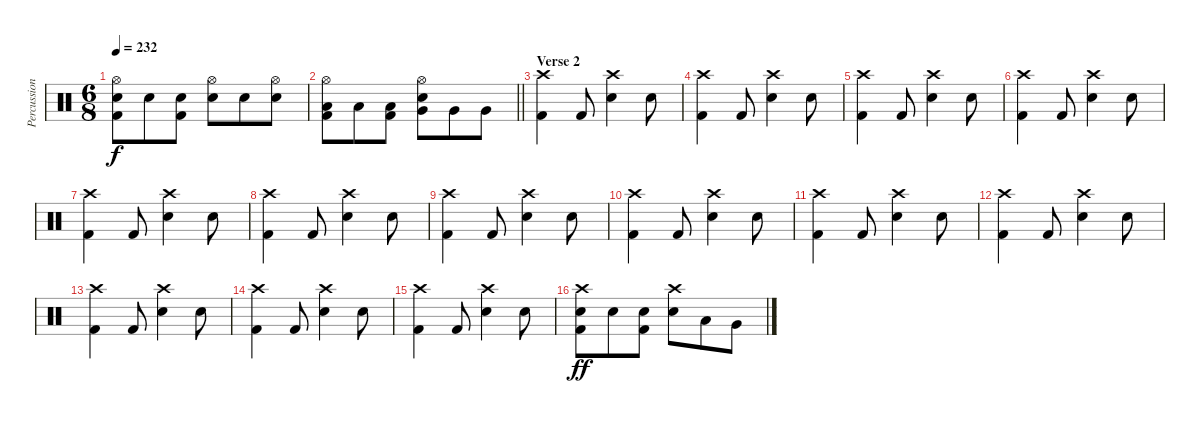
\track ("Percussion" "Percussion") {instrument percussion}
\staff {score}
\articulation defaults
\ts (6 8)
\tempo 232
\clef neutral
\ks c
("Hi-Hat (open)" "Electric Snare (hit)" "Kick (hit) 2").8{dy f} "Electric Snare (hit)".8 ("Electric Snare (hit)" "Kick (hit) 2").8 ("Hi-Hat (open)" "Electric Snare (hit)").8 "Electric Snare (hit)".8 ("Hi-Hat (open)" "Electric Snare (hit)").8 |
\barLineRight lightlight
("Hi-Hat (open)" "Low Tom (hit)" "Kick (hit) 2").8 "Low Tom (hit)".8 ("Low Tom (hit)" "Kick (hit) 2").8 ("Hi-Hat (open)" "Electric Snare (hit)" "Very Low Tom (hit)").8 "Very Low Tom (hit)".8 "Very Low Tom (hit)".8 |
\section ("" "Verse 2")
("Crash high (hit)" "Kick (hit) 2").4 "Kick (hit) 2".8 ("Crash high (hit)" "Electric Snare (hit)").4 "Electric Snare (hit)".8 |
("Crash high (hit)" "Kick (hit) 2").4 "Kick (hit) 2".8 ("Crash high (hit)" "Electric Snare (hit)").4 "Electric Snare (hit)".8 |
("Crash high (hit)" "Kick (hit) 2").4 "Kick (hit) 2".8 ("Crash high (hit)" "Electric Snare (hit)").4 "Electric Snare (hit)".8 |
("Crash high (hit)" "Kick (hit) 2").4 "Kick (hit) 2".8 ("Crash high (hit)" "Electric Snare (hit)").4 "Electric Snare (hit)".8 |
("Crash high (hit)" "Kick (hit) 2").4 "Kick (hit) 2".8 ("Crash high (hit)" "Electric Snare (hit)").4 "Electric Snare (hit)".8 |
("Crash high (hit)" "Kick (hit) 2").4 "Kick (hit) 2".8 ("Crash high (hit)" "Electric Snare (hit)").4 "Electric Snare (hit)".8 |
("Crash high (hit)" "Kick (hit) 2").4 "Kick (hit) 2".8 ("Crash high (hit)" "Electric Snare (hit)").4 "Electric Snare (hit)".8 |
("Crash high (hit)" "Kick (hit) 2").4 "Kick (hit) 2".8 ("Crash high (hit)" "Electric Snare (hit)").4 "Electric Snare (hit)".8 |
("Crash high (hit)" "Kick (hit) 2").4 "Kick (hit) 2".8 ("Crash high (hit)" "Electric Snare (hit)").4 "Electric Snare (hit)".8 |
("Crash high (hit)" "Kick (hit) 2").4 "Kick (hit) 2".8 ("Crash high (hit)" "Electric Snare (hit)").4 "Electric Snare (hit)".8 |
("Crash high (hit)" "Kick (hit) 2").4 "Kick (hit) 2".8 ("Crash high (hit)" "Electric Snare (hit)").4 "Electric Snare (hit)".8 |
("Crash high (hit)" "Kick (hit) 2").4 "Kick (hit) 2".8 ("Crash high (hit)" "Electric Snare (hit)").4 "Electric Snare (hit)".8 |
("Crash high (hit)" "Kick (hit) 2").4 "Kick (hit) 2".8 ("Crash high (hit)" "Electric Snare (hit)").4 "Electric Snare (hit)".8 |
("Crash high (hit)" "Electric Snare (hit)" "Kick (hit) 2").8{dy ff} "Electric Snare (hit)".8 ("Electric Snare (hit)" "Kick (hit) 2").8 ("Crash high (hit)" "Electric Snare (hit)").8 "Low Tom (hit)".8 "Very Low Tom (hit)".8
